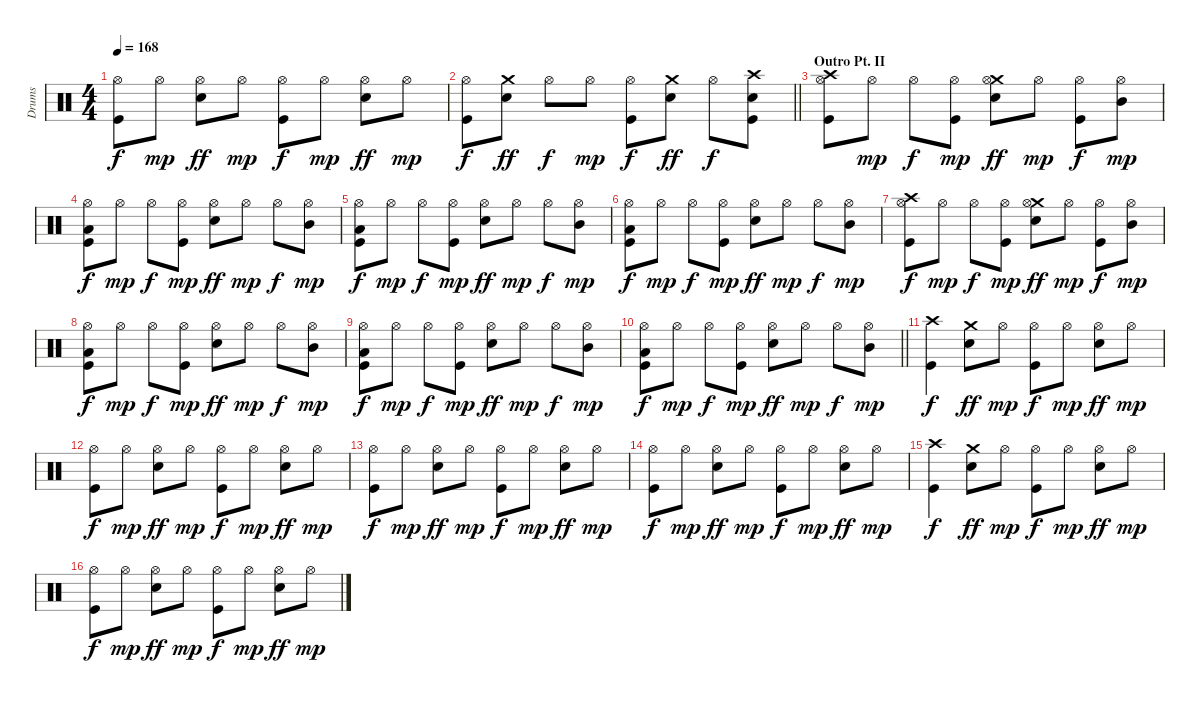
\track ("Drums" "Drums") {instrument percussion}
\staff {score}
\articulation defaults
\ts (4 4)
\tempo 168
\clef neutral
\ks c
("Hi-Hat (open)" "Kick (hit)").8{dy f} "Hi-Hat (open)".8{dy mp} ("Hi-Hat (open)" "Snare (hit) 2").8{dy ff} "Hi-Hat (open)".8{dy mp} ("Hi-Hat (open)" "Kick (hit)").8{dy f} "Hi-Hat (open)".8{dy mp} ("Hi-Hat (open)" "Snare (hit) 2").8{dy ff} "Hi-Hat (open)".8{dy mp} |
\barLineRight lightlight
("Hi-Hat (open)" "Kick (hit)").8{dy f} ("Crash medium (hit)" "Snare (hit) 2").8{dy ff} "Hi-Hat (open)".8{dy f} "Hi-Hat (open)".8{dy mp} ("Hi-Hat (open)" "Kick (hit)").8{dy f} ("Crash medium (hit)" "Snare (hit) 2").8{dy ff} "Hi-Hat (open)".8{dy f} ("Crash high (hit)" "Snare (hit) 2" "Kick (hit)").8 |
\section ("" "Outro Pt. II")
("Crash high (hit)" "Hi-Hat (open)" "Kick (hit)").8 "Hi-Hat (open)".8{dy mp} "Hi-Hat (open)".8{dy f} ("Hi-Hat (open)" "Kick (hit)").8{dy mp} ("Crash medium (hit)" "Hi-Hat (open)" "Snare (hit) 2").8{dy ff} "Hi-Hat (open)".8{dy mp} ("Hi-Hat (open)" "Kick (hit)").8{dy f} ("Mid Tom (hit)" "Hi-Hat (open)").8{dy mp} |
("Low Tom (hit)" "Hi-Hat (open)" "Kick (hit)").8{dy f} "Hi-Hat (open)".8{dy mp} "Hi-Hat (open)".8{dy f} ("Hi-Hat (open)" "Kick (hit)").8{dy mp} ("Hi-Hat (open)" "Snare (hit) 2").8{dy ff} "Hi-Hat (open)".8{dy mp} "Hi-Hat (open)".8{dy f} ("Mid Tom (hit)" "Hi-Hat (open)").8{dy mp} |
("Low Tom (hit)" "Hi-Hat (open)" "Kick (hit)").8{dy f} "Hi-Hat (open)".8{dy mp} "Hi-Hat (open)".8{dy f} ("Hi-Hat (open)" "Kick (hit)").8{dy mp} ("Hi-Hat (open)" "Snare (hit) 2").8{dy ff} "Hi-Hat (open)".8{dy mp} "Hi-Hat (open)".8{dy f} ("Mid Tom (hit)" "Hi-Hat (open)").8{dy mp} |
("Low Tom (hit)" "Hi-Hat (open)" "Kick (hit)").8{dy f} "Hi-Hat (open)".8{dy mp} "Hi-Hat (open)".8{dy f} ("Hi-Hat (open)" "Kick (hit)").8{dy mp} ("Hi-Hat (open)" "Snare (hit) 2").8{dy ff} "Hi-Hat (open)".8{dy mp} "Hi-Hat (open)".8{dy f} ("Mid Tom (hit)" "Hi-Hat (open)").8{dy mp} |
("Crash high (hit)" "Hi-Hat (open)" "Kick (hit)").8{dy f} "Hi-Hat (open)".8{dy mp} "Hi-Hat (open)".8{dy f} ("Hi-Hat (open)" "Kick (hit)").8{dy mp} ("Crash medium (hit)" "Hi-Hat (open)" "Snare (hit) 2").8{dy ff} "Hi-Hat (open)".8{dy mp} ("Hi-Hat (open)" "Kick (hit)").8{dy f} ("Mid Tom (hit)" "Hi-Hat (open)").8{dy mp} |
("Low Tom (hit)" "Hi-Hat (open)" "Kick (hit)").8{dy f} "Hi-Hat (open)".8{dy mp} "Hi-Hat (open)".8{dy f} ("Hi-Hat (open)" "Kick (hit)").8{dy mp} ("Hi-Hat (open)" "Snare (hit) 2").8{dy ff} "Hi-Hat (open)".8{dy mp} "Hi-Hat (open)".8{dy f} ("Mid Tom (hit)" "Hi-Hat (open)").8{dy mp} |
("Low Tom (hit)" "Hi-Hat (open)" "Kick (hit)").8{dy f} "Hi-Hat (open)".8{dy mp} "Hi-Hat (open)".8{dy f} ("Hi-Hat (open)" "Kick (hit)").8{dy mp} ("Hi-Hat (open)" "Snare (hit) 2").8{dy ff} "Hi-Hat (open)".8{dy mp} "Hi-Hat (open)".8{dy f} ("Mid Tom (hit)" "Hi-Hat (open)").8{dy mp} |
\barLineRight lightlight
("Low Tom (hit)" "Hi-Hat (open)" "Kick (hit)").8{dy f} "Hi-Hat (open)".8{dy mp} "Hi-Hat (open)".8{dy f} ("Hi-Hat (open)" "Kick (hit)").8{dy mp} ("Hi-Hat (open)" "Snare (hit) 2").8{dy ff} "Hi-Hat (open)".8{dy mp} "Hi-Hat (open)".8{dy f} ("Mid Tom (hit)" "Hi-Hat (open)").8{dy mp} |
("Crash high (hit)" "Kick (hit)").4{dy f} ("Crash medium (hit)" "Snare (hit) 2").8{dy ff} "Hi-Hat (open)".8{dy mp} ("Hi-Hat (open)" "Kick (hit)").8{dy f} "Hi-Hat (open)".8{dy mp} ("Hi-Hat (open)" "Snare (hit) 2").8{dy ff} "Hi-Hat (open)".8{dy mp} |
("Hi-Hat (open)" "Kick (hit)").8{dy f} "Hi-Hat (open)".8{dy mp} ("Hi-Hat (open)" "Snare (hit) 2").8{dy ff} "Hi-Hat (open)".8{dy mp} ("Hi-Hat (open)" "Kick (hit)").8{dy f} "Hi-Hat (open)".8{dy mp} ("Hi-Hat (open)" "Snare (hit) 2").8{dy ff} "Hi-Hat (open)".8{dy mp} |
("Hi-Hat (open)" "Kick (hit)").8{dy f} "Hi-Hat (open)".8{dy mp} ("Hi-Hat (open)" "Snare (hit) 2").8{dy ff} "Hi-Hat (open)".8{dy mp} ("Hi-Hat (open)" "Kick (hit)").8{dy f} "Hi-Hat (open)".8{dy mp} ("Hi-Hat (open)" "Snare (hit) 2").8{dy ff} "Hi-Hat (open)".8{dy mp} |
("Hi-Hat (open)" "Kick (hit)").8{dy f} "Hi-Hat (open)".8{dy mp} ("Hi-Hat (open)" "Snare (hit) 2").8{dy ff} "Hi-Hat (open)".8{dy mp} ("Hi-Hat (open)" "Kick (hit)").8{dy f} "Hi-Hat (open)".8{dy mp} ("Hi-Hat (open)" "Snare (hit) 2").8{dy ff} "Hi-Hat (open)".8{dy mp} |
("Crash high (hit)" "Kick (hit)").4{dy f} ("Crash medium (hit)" "Snare (hit) 2").8{dy ff} "Hi-Hat (open)".8{dy mp} ("Hi-Hat (open)" "Kick (hit)").8{dy f} "Hi-Hat (open)".8{dy mp} ("Hi-Hat (open)" "Snare (hit) 2").8{dy ff} "Hi-Hat (open)".8{dy mp} |
("Hi-Hat (open)" "Kick (hit)").8{dy f} "Hi-Hat (open)".8{dy mp} ("Hi-Hat (open)" "Snare (hit) 2").8{dy ff} "Hi-Hat (open)".8{dy mp} ("Hi-Hat (open)" "Kick (hit)").8{dy f} "Hi-Hat (open)".8{dy mp} ("Hi-Hat (open)" "Snare (hit) 2").8{dy ff} "Hi-Hat (open)".8{dy mp}
